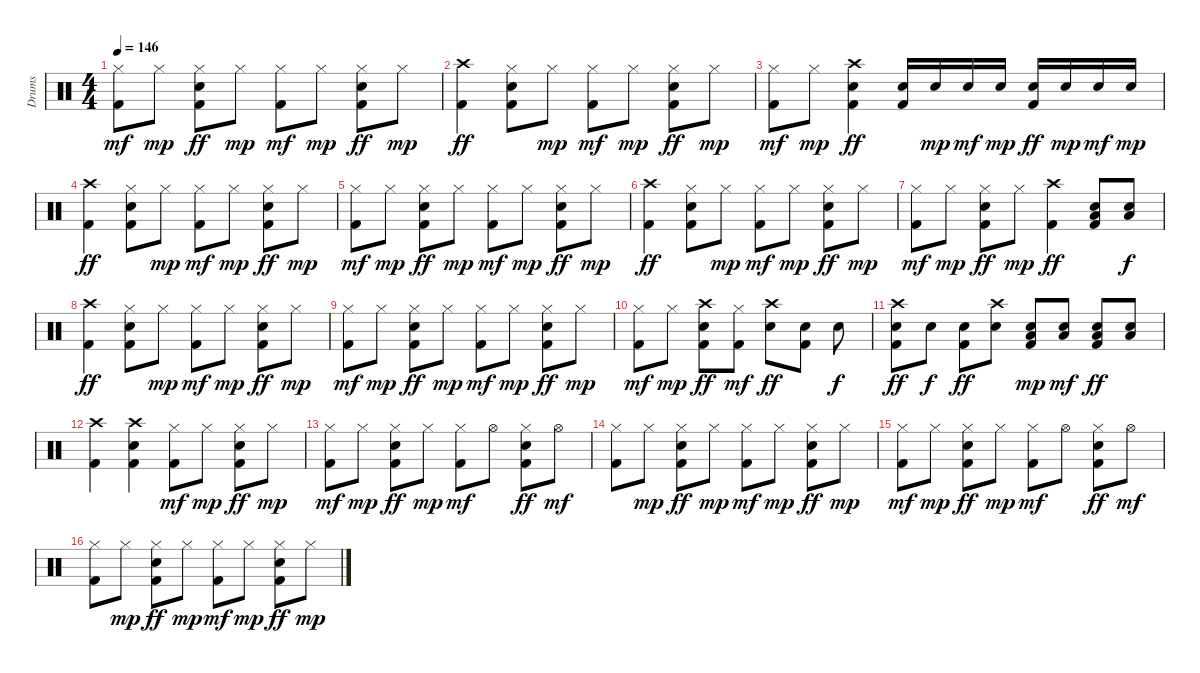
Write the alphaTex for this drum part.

\track ("Drums" "Drums") {instrument percussion}
\staff {score}
\articulation defaults
\ts (4 4)
\tempo 146
\clef neutral
\ks c
("Kick (hit) 2" "Hi-Hat (closed)").8{dy mf} "Hi-Hat (closed)".8{dy mp} ("Kick (hit) 2" "Snare (hit) 2" "Hi-Hat (closed)").8{dy ff} "Hi-Hat (closed)".8{dy mp} ("Kick (hit) 2" "Hi-Hat (closed)").8{dy mf} "Hi-Hat (closed)".8{dy mp} ("Kick (hit) 2" "Snare (hit) 2" "Hi-Hat (closed)").8{dy ff} "Hi-Hat (closed)".8{dy mp} |
("Kick (hit) 2" "Crash high (hit)").4{dy ff} ("Kick (hit) 2" "Hi-Hat (closed)" "Snare (hit) 2").8 "Hi-Hat (closed)".8{dy mp} ("Kick (hit) 2" "Hi-Hat (closed)").8{dy mf} "Hi-Hat (closed)".8{dy mp} ("Kick (hit) 2" "Hi-Hat (closed)" "Snare (hit) 2").8{dy ff} "Hi-Hat (closed)".8{dy mp} |
("Kick (hit) 2" "Hi-Hat (closed)").8{dy mf} "Hi-Hat (closed)".8{dy mp} ("Kick (hit) 2" "Snare (hit) 2" "Crash high (hit)").4{dy ff} ("Kick (hit) 2" "Snare (hit) 2").16 "Snare (hit) 2".16{dy mp} "Snare (hit) 2".16{dy mf} "Snare (hit) 2".16{dy mp} ("Kick (hit) 2" "Snare (hit) 2").16{dy ff} "Snare (hit) 2".16{dy mp} "Snare (hit) 2".16{dy mf} "Snare (hit) 2".16{dy mp} |
("Kick (hit) 2" "Crash high (hit)").4{dy ff} ("Kick (hit) 2" "Hi-Hat (closed)" "Snare (hit) 2").8 "Hi-Hat (closed)".8{dy mp} ("Kick (hit) 2" "Hi-Hat (closed)").8{dy mf} "Hi-Hat (closed)".8{dy mp} ("Kick (hit) 2" "Hi-Hat (closed)" "Snare (hit) 2").8{dy ff} "Hi-Hat (closed)".8{dy mp} |
("Kick (hit) 2" "Hi-Hat (closed)").8{dy mf} "Hi-Hat (closed)".8{dy mp} ("Kick (hit) 2" "Snare (hit) 2" "Hi-Hat (closed)").8{dy ff} "Hi-Hat (closed)".8{dy mp} ("Kick (hit) 2" "Hi-Hat (closed)").8{dy mf} "Hi-Hat (closed)".8{dy mp} ("Kick (hit) 2" "Snare (hit) 2" "Hi-Hat (closed)").8{dy ff} "Hi-Hat (closed)".8{dy mp} |
("Kick (hit) 2" "Crash high (hit)").4{dy ff} ("Kick (hit) 2" "Hi-Hat (closed)" "Snare (hit) 2").8 "Hi-Hat (closed)".8{dy mp} ("Kick (hit) 2" "Hi-Hat (closed)").8{dy mf} "Hi-Hat (closed)".8{dy mp} ("Kick (hit) 2" "Hi-Hat (closed)" "Snare (hit) 2").8{dy ff} "Hi-Hat (closed)".8{dy mp} |
("Kick (hit) 2" "Hi-Hat (closed)").8{dy mf} "Hi-Hat (closed)".8{dy mp} ("Kick (hit) 2" "Snare (hit) 2" "Hi-Hat (closed)").8{dy ff} "Hi-Hat (closed)".8{dy mp} ("Kick (hit) 2" "Crash high (hit)").4{dy ff} ("Kick (hit) 2" "Snare (hit) 2" "Low Floor Tom (hit)").8 ("Snare (hit) 2" "Low Floor Tom (hit)").8{dy f} |
("Kick (hit) 2" "Crash high (hit)").4{dy ff} ("Kick (hit) 2" "Hi-Hat (closed)" "Snare (hit) 2").8 "Hi-Hat (closed)".8{dy mp} ("Kick (hit) 2" "Hi-Hat (closed)").8{dy mf} "Hi-Hat (closed)".8{dy mp} ("Kick (hit) 2" "Hi-Hat (closed)" "Snare (hit) 2").8{dy ff} "Hi-Hat (closed)".8{dy mp} |
("Kick (hit) 2" "Hi-Hat (closed)").8{dy mf} "Hi-Hat (closed)".8{dy mp} ("Kick (hit) 2" "Snare (hit) 2" "Hi-Hat (closed)").8{dy ff} "Hi-Hat (closed)".8{dy mp} ("Kick (hit) 2" "Hi-Hat (closed)").8{dy mf} "Hi-Hat (closed)".8{dy mp} ("Kick (hit) 2" "Snare (hit) 2" "Hi-Hat (closed)").8{dy ff} "Hi-Hat (closed)".8{dy mp} |
("Kick (hit) 2" "Hi-Hat (closed)").8{dy mf} "Hi-Hat (closed)".8{dy mp} ("Kick (hit) 2" "Snare (hit) 2" "Crash high (hit)").8{dy ff} ("Kick (hit) 2" "Hi-Hat (closed)").8{dy mf} ("Crash high (hit)" "Snare (hit) 2").8{dy ff} ("Kick (hit) 2" "Snare (hit) 2").8 "Snare (hit) 2".8{dy f} |
("Kick (hit) 2" "Snare (hit) 2" "Crash high (hit)").8{dy ff} "Snare (hit) 2".8{dy f} ("Kick (hit) 2" "Snare (hit) 2").8{dy ff} ("Snare (hit) 2" "Crash high (hit)").8 ("Kick (hit) 2" "Snare (hit) 2" "Low Floor Tom (hit)").8{dy mp} ("Snare (hit) 2" "Low Floor Tom (hit)").8{dy mf} ("Kick (hit) 2" "Snare (hit) 2" "Low Floor Tom (hit)").8{dy ff} ("Snare (hit) 2" "Low Floor Tom (hit)").8 |
("Kick (hit) 2" "Crash high (hit)").4 ("Kick (hit) 2" "Snare (hit) 2" "Crash high (hit)").4 ("Kick (hit) 2" "Hi-Hat (closed)").8{dy mf} "Hi-Hat (closed)".8{dy mp} ("Kick (hit) 2" "Snare (hit) 2" "Hi-Hat (closed)").8{dy ff} "Hi-Hat (closed)".8{dy mp} |
("Kick (hit) 2" "Hi-Hat (closed)").8{dy mf} "Hi-Hat (closed)".8{dy mp} ("Kick (hit) 2" "Snare (hit) 2" "Hi-Hat (closed)").8{dy ff} "Hi-Hat (closed)".8{dy mp} ("Kick (hit) 2" "Hi-Hat (closed)").8{dy mf} "Hi-Hat (open)".8 ("Kick (hit) 2" "Snare (hit) 2" "Hi-Hat (closed)").8{dy ff} "Hi-Hat (open)".8{dy mf} |
("Kick (hit) 2" "Hi-Hat (closed)").8 "Hi-Hat (closed)".8{dy mp} ("Kick (hit) 2" "Snare (hit) 2" "Hi-Hat (closed)").8{dy ff} "Hi-Hat (closed)".8{dy mp} ("Kick (hit) 2" "Hi-Hat (closed)").8{dy mf} "Hi-Hat (closed)".8{dy mp} ("Kick (hit) 2" "Snare (hit) 2" "Hi-Hat (closed)").8{dy ff} "Hi-Hat (closed)".8{dy mp} |
("Kick (hit) 2" "Hi-Hat (closed)").8{dy mf} "Hi-Hat (closed)".8{dy mp} ("Kick (hit) 2" "Snare (hit) 2" "Hi-Hat (closed)").8{dy ff} "Hi-Hat (closed)".8{dy mp} ("Kick (hit) 2" "Hi-Hat (closed)").8{dy mf} "Hi-Hat (open)".8 ("Kick (hit) 2" "Snare (hit) 2" "Hi-Hat (closed)").8{dy ff} "Hi-Hat (open)".8{dy mf} |
("Kick (hit) 2" "Hi-Hat (closed)").8 "Hi-Hat (closed)".8{dy mp} ("Kick (hit) 2" "Snare (hit) 2" "Hi-Hat (closed)").8{dy ff} "Hi-Hat (closed)".8{dy mp} ("Kick (hit) 2" "Hi-Hat (closed)").8{dy mf} "Hi-Hat (closed)".8{dy mp} ("Kick (hit) 2" "Snare (hit) 2" "Hi-Hat (closed)").8{dy ff} "Hi-Hat (closed)".8{dy mp}
